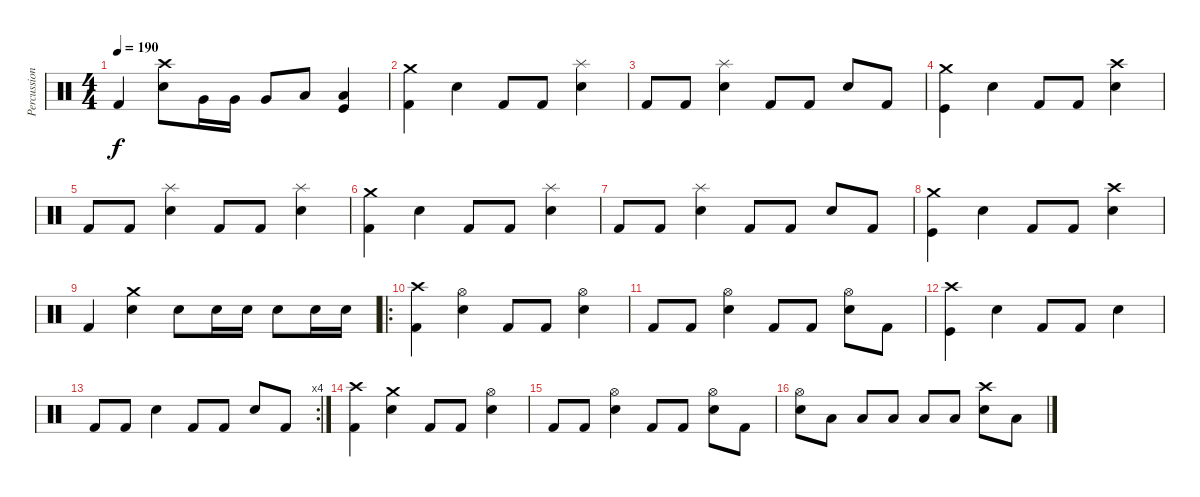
\track ("Percussions" "Percussion") {instrument percussion}
\staff {score}
\articulation defaults
\ts (4 4)
\tempo 190
\clef neutral
\ks c "Kick (hit) 2".4{dy f}
("Crash high (hit)" "Snare (hit) 2").8 "Very Low Tom (hit)".16 "Very Low Tom (hit)".16 "Very Low Tom (hit)".8 "Low Tom (hit)".8 ("Low Floor Tom (hit)" "Kick (hit)").4 |
("Crash medium (hit)" "Kick (hit) 2").4 "Snare (hit) 2".4 "Kick (hit) 2".8 "Kick (hit) 2".8 ("Splash (hit)" "Snare (hit) 2").4 |
"Kick (hit) 2".8 "Kick (hit) 2".8 ("Splash (hit)" "Snare (hit) 2").4 "Kick (hit) 2".8 "Kick (hit) 2".8 "Snare (hit) 2".8 "Kick (hit) 2".8 |
("Crash medium (hit)" "Kick (hit)").4 "Snare (hit) 2".4 "Kick (hit) 2".8 "Kick (hit) 2".8 ("Crash high (hit)" "Snare (hit) 2").4 |
"Kick (hit) 2".8 "Kick (hit) 2".8 ("Splash (hit)" "Snare (hit) 2").4 "Kick (hit) 2".8 "Kick (hit) 2".8 ("Splash (hit)" "Snare (hit) 2").4 |
("Crash medium (hit)" "Kick (hit) 2").4 "Snare (hit) 2".4 "Kick (hit) 2".8 "Kick (hit) 2".8 ("Splash (hit)" "Snare (hit) 2").4 |
"Kick (hit) 2".8 "Kick (hit) 2".8 ("Splash (hit)" "Snare (hit) 2").4 "Kick (hit) 2".8 "Kick (hit) 2".8 "Snare (hit) 2".8 "Kick (hit) 2".8 |
("Crash medium (hit)" "Kick (hit)").4 "Snare (hit) 2".4 "Kick (hit) 2".8 "Kick (hit) 2".8 ("Crash high (hit)" "Snare (hit) 2").4 |
"Kick (hit) 2".4 ("Crash medium (hit)" "Snare (hit) 2").4 "Electric Snare (hit)".8 "Electric Snare (hit)".16 "Electric Snare (hit)".16 "Electric Snare (hit)".8 "Electric Snare (hit)".16 "Electric Snare (hit)".16 |
\ro
("Crash high (hit)" "Kick (hit) 2").4 ("Hi-Hat (open)" "Snare (hit) 2").4 "Kick (hit) 2".8 "Kick (hit) 2".8 ("Hi-Hat (open)" "Snare (hit) 2").4 |
"Kick (hit) 2".8 "Kick (hit) 2".8 ("Hi-Hat (open)" "Snare (hit) 2").4 "Kick (hit) 2".8 "Kick (hit) 2".8 ("Hi-Hat (open)" "Snare (hit) 2").8 "Kick (hit) 2".8 |
("Crash high (hit)" "Kick (hit)").4 "Snare (hit) 2".4 "Kick (hit) 2".8 "Kick (hit) 2".8 "Snare (hit) 2".4 |
\rc 4 "Kick (hit) 2".8 "Kick (hit) 2".8 "Snare (hit) 2".4 "Kick (hit) 2".8 "Kick (hit) 2".8 "Snare (hit) 2".8 "Kick (hit) 2".8
|
("Crash high (hit)" "Kick (hit) 2").4 ("Crash medium (hit)" "Snare (hit) 2").4 "Kick (hit) 2".8 "Kick (hit) 2".8 ("Hi-Hat (open)" "Snare (hit) 2").4 |
"Kick (hit) 2".8 "Kick (hit) 2".8 ("Hi-Hat (open)" "Snare (hit) 2").4 "Kick (hit) 2".8 "Kick (hit) 2".8 ("Hi-Hat (open)" "Snare (hit) 2").8 "Kick (hit) 2".8 |
("Hi-Hat (open)" "Electric Snare (hit)").8 "Low Floor Tom (hit)".8 "Low Floor Tom (hit)".8 "Low Tom (hit)".8 "Low Floor Tom (hit)".8 "Low Floor Tom (hit)".8 ("Crash high (hit)" "Electric Snare (hit)").8 "Low Floor Tom (hit)".8
